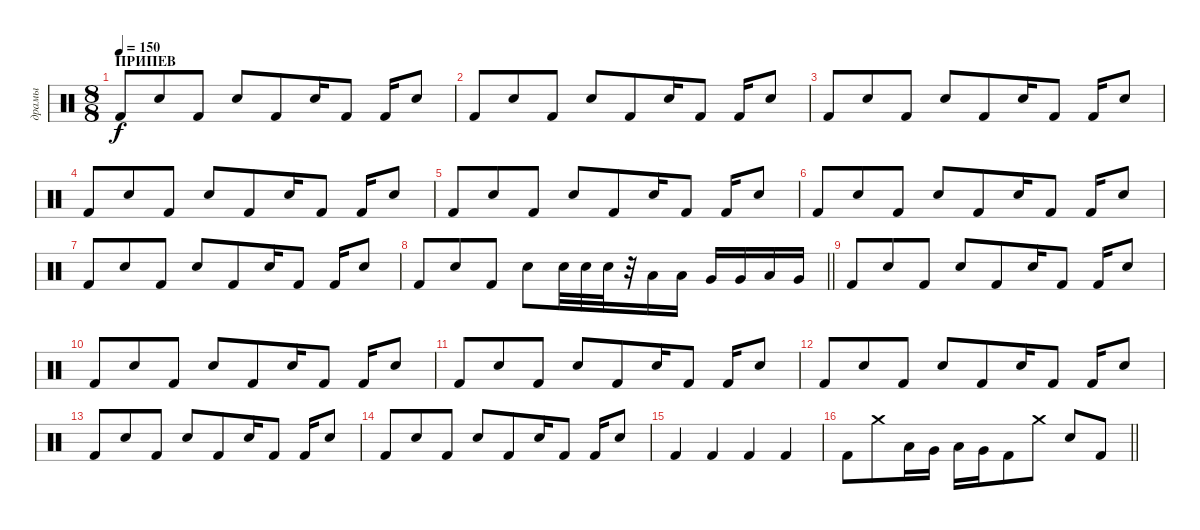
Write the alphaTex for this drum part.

\track ("драмы" "драмы") {instrument percussion}
\staff {score}
\articulation defaults
\ts (8 8)
\section ("" "ПРИПЕВ")
\tempo 150
\clef neutral
\ks c "Kick (hit) 2".8{dy f} "Electric Snare (hit)".8 "Kick (hit) 2".8 "Electric Snare (hit)".8 "Kick (hit) 2".8 "Electric Snare (hit)".16 "Kick (hit) 2".8 "Kick (hit) 2".16 "Electric Snare (hit)".8
|
"Kick (hit) 2".8 "Electric Snare (hit)".8 "Kick (hit) 2".8 "Electric Snare (hit)".8 "Kick (hit) 2".8 "Electric Snare (hit)".16 "Kick (hit) 2".8 "Kick (hit) 2".16 "Electric Snare (hit)".8 |
"Kick (hit) 2".8 "Electric Snare (hit)".8 "Kick (hit) 2".8 "Electric Snare (hit)".8 "Kick (hit) 2".8 "Electric Snare (hit)".16 "Kick (hit) 2".8 "Kick (hit) 2".16 "Electric Snare (hit)".8 |
"Kick (hit) 2".8 "Electric Snare (hit)".8 "Kick (hit) 2".8 "Electric Snare (hit)".8 "Kick (hit) 2".8 "Electric Snare (hit)".16 "Kick (hit) 2".8 "Kick (hit) 2".16 "Electric Snare (hit)".8 |
"Kick (hit) 2".8 "Electric Snare (hit)".8 "Kick (hit) 2".8 "Electric Snare (hit)".8 "Kick (hit) 2".8 "Electric Snare (hit)".16 "Kick (hit) 2".8 "Kick (hit) 2".16 "Electric Snare (hit)".8 |
"Kick (hit) 2".8 "Electric Snare (hit)".8 "Kick (hit) 2".8 "Electric Snare (hit)".8 "Kick (hit) 2".8 "Electric Snare (hit)".16 "Kick (hit) 2".8 "Kick (hit) 2".16 "Electric Snare (hit)".8 |
"Kick (hit) 2".8 "Electric Snare (hit)".8 "Kick (hit) 2".8 "Electric Snare (hit)".8 "Kick (hit) 2".8 "Electric Snare (hit)".16 "Kick (hit) 2".8 "Kick (hit) 2".16 "Electric Snare (hit)".8 |
\barLineRight lightlight "Kick (hit) 2".8 "Electric Snare (hit)".8 "Kick (hit) 2".8 "Electric Snare (hit)".8 "Electric Snare (hit)".32 "Electric Snare (hit)".32 "Electric Snare (hit)".32
r.32 "Low Tom (hit)".16 "Low Tom (hit)".16 "Very Low Tom (hit)".16 "Very Low Tom (hit)".16 "Low Tom (hit)".16 "Very Low Tom (hit)".16 |
"Kick (hit) 2".8 "Electric Snare (hit)".8 "Kick (hit) 2".8 "Electric Snare (hit)".8 "Kick (hit) 2".8 "Electric Snare (hit)".16 "Kick (hit) 2".8 "Kick (hit) 2".16 "Electric Snare (hit)".8 |
"Kick (hit) 2".8 "Electric Snare (hit)".8 "Kick (hit) 2".8 "Electric Snare (hit)".8 "Kick (hit) 2".8 "Electric Snare (hit)".16 "Kick (hit) 2".8 "Kick (hit) 2".16 "Electric Snare (hit)".8 |
"Kick (hit) 2".8 "Electric Snare (hit)".8 "Kick (hit) 2".8 "Electric Snare (hit)".8 "Kick (hit) 2".8 "Electric Snare (hit)".16 "Kick (hit) 2".8 "Kick (hit) 2".16 "Electric Snare (hit)".8 |
"Kick (hit) 2".8 "Electric Snare (hit)".8 "Kick (hit) 2".8 "Electric Snare (hit)".8 "Kick (hit) 2".8 "Electric Snare (hit)".16 "Kick (hit) 2".8 "Kick (hit) 2".16 "Electric Snare (hit)".8 |
"Kick (hit) 2".8 "Electric Snare (hit)".8 "Kick (hit) 2".8 "Electric Snare (hit)".8 "Kick (hit) 2".8 "Electric Snare (hit)".16 "Kick (hit) 2".8 "Kick (hit) 2".16 "Electric Snare (hit)".8 |
"Kick (hit) 2".8 "Electric Snare (hit)".8 "Kick (hit) 2".8 "Electric Snare (hit)".8 "Kick (hit) 2".8 "Electric Snare (hit)".16 "Kick (hit) 2".8 "Kick (hit) 2".16 "Electric Snare (hit)".8 |
"Kick (hit) 2".4 "Kick (hit) 2".4 "Kick (hit) 2".4 "Kick (hit) 2".4 |
\barLineRight lightlight "Kick (hit) 2".8 "Crash medium (hit)".8 "Low Tom (hit)".16 "Very Low Tom (hit)".16 "Low Floor Tom (hit)".16 "Very Low Tom (hit)".16 "Kick (hit) 2".8 "Crash medium (hit)".8 "Electric Snare (hit)".8 "Kick (hit) 2".8
